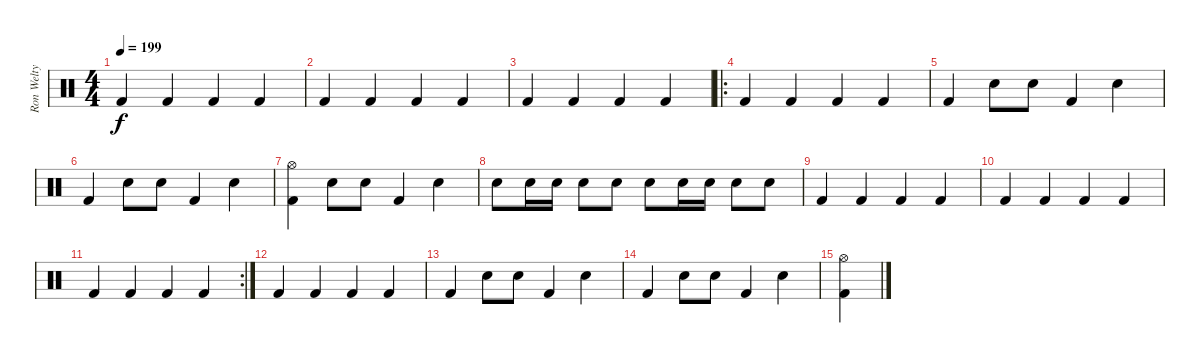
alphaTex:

\track ("Ron Welty" "Ron Welty") {instrument percussion}
\staff {score}
\articulation defaults
\ts (4 4)
\tempo 199
\clef neutral
\ks c "Kick (hit) 2".4{dy f} "Kick (hit) 2".4 "Kick (hit) 2".4 "Kick (hit) 2".4
|
"Kick (hit) 2".4 "Kick (hit) 2".4 "Kick (hit) 2".4 "Kick (hit) 2".4 |
"Kick (hit) 2".4 "Kick (hit) 2".4 "Kick (hit) 2".4 "Kick (hit) 2".4 |
\ro "Kick (hit) 2".4 "Kick (hit) 2".4 "Kick (hit) 2".4 "Kick (hit) 2".4
|
"Kick (hit) 2".4 "Snare (hit) 2".8 "Snare (hit) 2".8 "Kick (hit) 2".4 "Snare (hit) 2".4 |
"Kick (hit) 2".4 "Snare (hit) 2".8 "Snare (hit) 2".8 "Kick (hit) 2".4 "Snare (hit) 2".4 |
("Hi-Hat (open)" "Kick (hit) 2").4 "Snare (hit) 2".8 "Snare (hit) 2".8 "Kick (hit) 2".4 "Snare (hit) 2".4 |
"Snare (hit) 2".8 "Snare (hit) 2".16 "Snare (hit) 2".16 "Snare (hit) 2".8 "Snare (hit) 2".8 "Snare (hit) 2".8 "Snare (hit) 2".16 "Snare (hit) 2".16 "Snare (hit) 2".8 "Snare (hit) 2".8 |
"Kick (hit) 2".4 "Kick (hit) 2".4 "Kick (hit) 2".4 "Kick (hit) 2".4 |
"Kick (hit) 2".4 "Kick (hit) 2".4 "Kick (hit) 2".4 "Kick (hit) 2".4 |
\rc 2 "Kick (hit) 2".4 "Kick (hit) 2".4 "Kick (hit) 2".4 "Kick (hit) 2".4
|
"Kick (hit) 2".4 "Kick (hit) 2".4 "Kick (hit) 2".4 "Kick (hit) 2".4 |
"Kick (hit) 2".4 "Snare (hit) 2".8 "Snare (hit) 2".8 "Kick (hit) 2".4 "Snare (hit) 2".4 |
"Kick (hit) 2".4 "Snare (hit) 2".8 "Snare (hit) 2".8 "Kick (hit) 2".4 "Snare (hit) 2".4 |
("Hi-Hat (open)" "Kick (hit) 2").4
